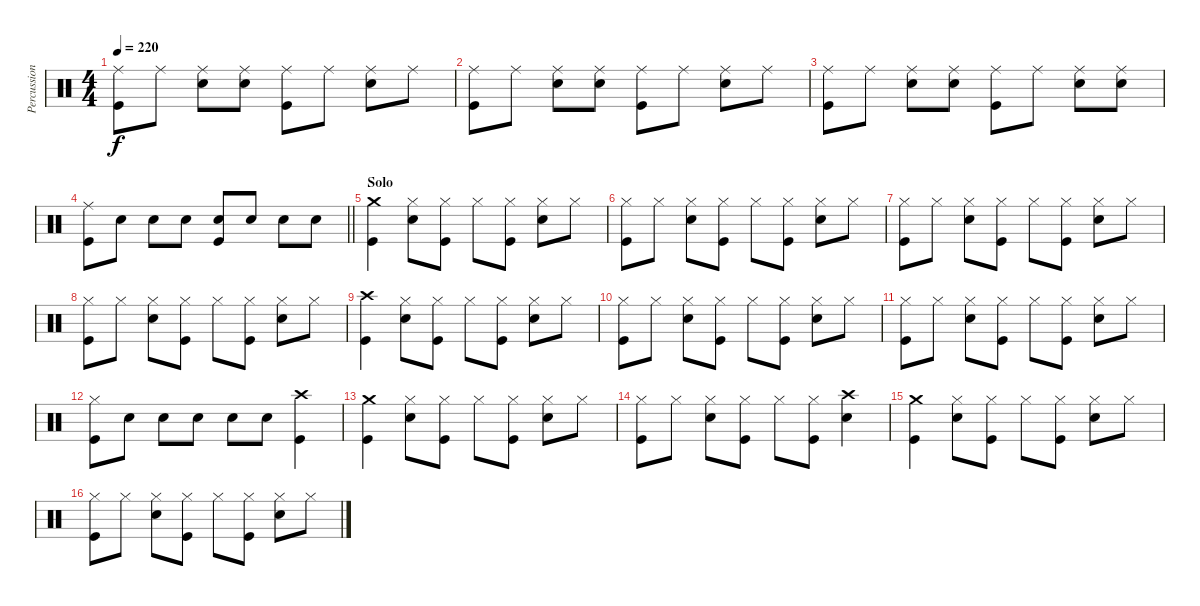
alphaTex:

\track ("Percussion" "Percussion") {instrument percussion}
\staff {score}
\articulation defaults
\ts (4 4)
\tempo 220
\clef neutral
\ks c
("Kick (hit)" "Ride (middle)").8{dy f} "Ride (middle)".8 ("Ride (middle)" "Snare (hit) 2").8 ("Ride (middle)" "Snare (hit) 2").8 ("Kick (hit)" "Ride (middle)").8 "Ride (middle)".8 ("Ride (middle)" "Snare (hit) 2").8 "Ride (middle)".8 |
("Kick (hit)" "Ride (middle)").8 "Ride (middle)".8 ("Ride (middle)" "Snare (hit) 2").8 ("Ride (middle)" "Snare (hit) 2").8 ("Kick (hit)" "Ride (middle)").8 "Ride (middle)".8 ("Ride (middle)" "Snare (hit) 2").8 "Ride (middle)".8 |
("Kick (hit)" "Ride (middle)").8 "Ride (middle)".8 ("Ride (middle)" "Snare (hit) 2").8 ("Ride (middle)" "Snare (hit) 2").8 ("Kick (hit)" "Ride (middle)").8 "Ride (middle)".8 ("Ride (middle)" "Snare (hit) 2").8 ("Ride (middle)" "Snare (hit) 2").8 |
\barLineRight lightlight
("Kick (hit)" "Ride (middle)").8 "Snare (hit) 2".8 "Snare (hit) 2".8 "Snare (hit) 2".8 ("Kick (hit)" "Snare (hit) 2").8 "Snare (hit) 2".8 "Snare (hit) 2".8 "Snare (hit) 2".8 |
\section ("" "Solo")
("Kick (hit)" "Crash medium (hit)").4 ("Hi-Hat (closed)" "Snare (hit) 2").8 ("Kick (hit)" "Hi-Hat (closed)").8 "Hi-Hat (closed)".8 ("Kick (hit)" "Hi-Hat (closed)").8 ("Hi-Hat (closed)" "Snare (hit) 2").8 "Hi-Hat (closed)".8 |
("Kick (hit)" "Hi-Hat (closed)").8 "Hi-Hat (closed)".8 ("Hi-Hat (closed)" "Snare (hit) 2").8 ("Kick (hit)" "Hi-Hat (closed)").8 "Hi-Hat (closed)".8 ("Kick (hit)" "Hi-Hat (closed)").8 ("Hi-Hat (closed)" "Snare (hit) 2").8 "Hi-Hat (closed)".8 |
("Kick (hit)" "Hi-Hat (closed)").8 "Hi-Hat (closed)".8 ("Hi-Hat (closed)" "Snare (hit) 2").8 ("Kick (hit)" "Hi-Hat (closed)").8 "Hi-Hat (closed)".8 ("Kick (hit)" "Hi-Hat (closed)").8 ("Hi-Hat (closed)" "Snare (hit) 2").8 "Hi-Hat (closed)".8 |
("Kick (hit)" "Hi-Hat (closed)").8 "Hi-Hat (closed)".8 ("Hi-Hat (closed)" "Snare (hit) 2").8 ("Kick (hit)" "Hi-Hat (closed)").8 "Hi-Hat (closed)".8 ("Kick (hit)" "Hi-Hat (closed)").8 ("Hi-Hat (closed)" "Snare (hit) 2").8 "Hi-Hat (closed)".8 |
("Kick (hit)" "Crash high (hit)").4 ("Hi-Hat (closed)" "Snare (hit) 2").8 ("Kick (hit)" "Hi-Hat (closed)").8 "Hi-Hat (closed)".8 ("Kick (hit)" "Hi-Hat (closed)").8 ("Hi-Hat (closed)" "Snare (hit) 2").8 "Hi-Hat (closed)".8 |
("Kick (hit)" "Hi-Hat (closed)").8 "Hi-Hat (closed)".8 ("Hi-Hat (closed)" "Snare (hit) 2").8 ("Kick (hit)" "Hi-Hat (closed)").8 "Hi-Hat (closed)".8 ("Kick (hit)" "Hi-Hat (closed)").8 ("Hi-Hat (closed)" "Snare (hit) 2").8 "Hi-Hat (closed)".8 |
("Kick (hit)" "Hi-Hat (closed)").8 "Hi-Hat (closed)".8 ("Hi-Hat (closed)" "Snare (hit) 2").8 ("Kick (hit)" "Hi-Hat (closed)").8 "Hi-Hat (closed)".8 ("Kick (hit)" "Hi-Hat (closed)").8 ("Hi-Hat (closed)" "Snare (hit) 2").8 "Hi-Hat (closed)".8 |
("Kick (hit)" "Hi-Hat (closed)").8 "Snare (hit) 2".8 "Snare (hit) 2".8 "Snare (hit) 2".8 "Snare (hit) 2".8 "Snare (hit) 2".8 ("Kick (hit)" "Crash high (hit)").4 |
("Kick (hit)" "Crash medium (hit)").4 ("Hi-Hat (closed)" "Snare (hit) 2").8 ("Kick (hit)" "Hi-Hat (closed)").8 "Hi-Hat (closed)".8 ("Kick (hit)" "Hi-Hat (closed)").8 ("Hi-Hat (closed)" "Snare (hit) 2").8 "Hi-Hat (closed)".8 |
("Kick (hit)" "Hi-Hat (closed)").8 "Hi-Hat (closed)".8 ("Hi-Hat (closed)" "Snare (hit) 2").8 ("Kick (hit)" "Hi-Hat (closed)").8 "Hi-Hat (closed)".8 ("Kick (hit)" "Hi-Hat (closed)").8 ("Crash high (hit)" "Snare (hit) 2").4 |
("Kick (hit)" "Crash medium (hit)").4 ("Hi-Hat (closed)" "Snare (hit) 2").8 ("Kick (hit)" "Hi-Hat (closed)").8 "Hi-Hat (closed)".8 ("Kick (hit)" "Hi-Hat (closed)").8 ("Hi-Hat (closed)" "Snare (hit) 2").8 "Hi-Hat (closed)".8 |
("Kick (hit)" "Hi-Hat (closed)").8 "Hi-Hat (closed)".8 ("Hi-Hat (closed)" "Snare (hit) 2").8 ("Kick (hit)" "Hi-Hat (closed)").8 "Hi-Hat (closed)".8 ("Kick (hit)" "Hi-Hat (closed)").8 ("Hi-Hat (closed)" "Snare (hit) 2").8 "Hi-Hat (closed)".8
